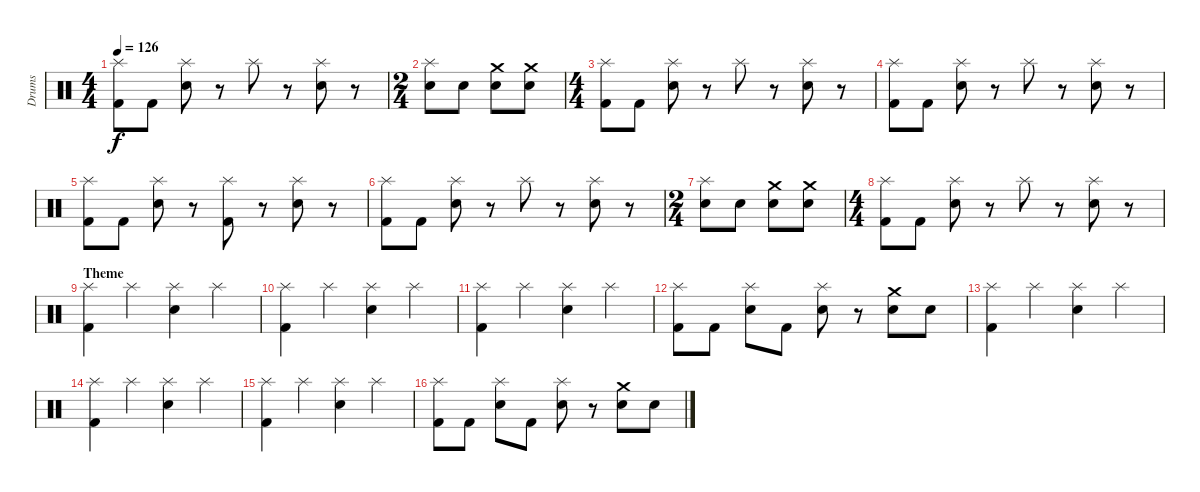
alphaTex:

\track ("Drums" "Drums") {instrument percussion}
\staff {score}
\articulation defaults
\ts (4 4)
\tempo 126
\clef neutral
\ks c
("Splash (hit)" "Kick (hit) 2").8{dy f} "Kick (hit) 2".8 ("Splash (hit)" "Snare (hit) 2").8 r.8 "Splash (hit)".8 r.8 ("Splash (hit)" "Snare (hit) 2").8 r.8 |
\ts (2 4)
("Splash (hit)" "Snare (hit) 2").8 "Snare (hit) 2".8 ("Crash medium (hit)" "Snare (hit) 2").8 ("Crash medium (hit)" "Snare (hit) 2").8 |
\ts (4 4)
("Splash (hit)" "Kick (hit) 2").8 "Kick (hit) 2".8 ("Splash (hit)" "Snare (hit) 2").8 r.8 "Splash (hit)".8 r.8 ("Splash (hit)" "Snare (hit) 2").8 r.8 |
("Splash (hit)" "Kick (hit) 2").8 "Kick (hit) 2".8 ("Splash (hit)" "Snare (hit) 2").8 r.8 "Splash (hit)".8 r.8 ("Splash (hit)" "Snare (hit) 2").8 r.8 |
("Splash (hit)" "Kick (hit) 2").8 "Kick (hit) 2".8 ("Splash (hit)" "Snare (hit) 2").8 r.8 ("Splash (hit)" "Kick (hit) 2").8 r.8 ("Splash (hit)" "Snare (hit) 2").8 r.8 |
("Splash (hit)" "Kick (hit) 2").8 "Kick (hit) 2".8 ("Splash (hit)" "Snare (hit) 2").8 r.8 "Splash (hit)".8 r.8 ("Splash (hit)" "Snare (hit) 2").8 r.8 |
\ts (2 4)
("Splash (hit)" "Snare (hit) 2").8 "Snare (hit) 2".8 ("Crash medium (hit)" "Snare (hit) 2").8 ("Crash medium (hit)" "Snare (hit) 2").8 |
\ts (4 4)
("Splash (hit)" "Kick (hit) 2").8 "Kick (hit) 2".8 ("Splash (hit)" "Snare (hit) 2").8 r.8 "Splash (hit)".8 r.8 ("Splash (hit)" "Snare (hit) 2").8 r.8 |
\section ("" "Theme")
("Splash (hit)" "Kick (hit) 2").4 "Splash (hit)".4 ("Splash (hit)" "Snare (hit) 2").4 "Splash (hit)".4 |
("Splash (hit)" "Kick (hit) 2").4 "Splash (hit)".4 ("Splash (hit)" "Snare (hit) 2").4 "Splash (hit)".4 |
("Splash (hit)" "Kick (hit) 2").4 "Splash (hit)".4 ("Splash (hit)" "Snare (hit) 2").4 "Splash (hit)".4 |
("Splash (hit)" "Kick (hit) 2").8 "Kick (hit) 2".8 ("Splash (hit)" "Snare (hit) 2").8 "Kick (hit) 2".8 ("Splash (hit)" "Snare (hit) 2").8 r.8 ("Crash medium (hit)" "Snare (hit) 2").8 "Snare (hit) 2".8 |
("Splash (hit)" "Kick (hit) 2").4 "Splash (hit)".4 ("Splash (hit)" "Snare (hit) 2").4 "Splash (hit)".4 |
("Splash (hit)" "Kick (hit) 2").4 "Splash (hit)".4 ("Splash (hit)" "Snare (hit) 2").4 "Splash (hit)".4 |
("Splash (hit)" "Kick (hit) 2").4 "Splash (hit)".4 ("Splash (hit)" "Snare (hit) 2").4 "Splash (hit)".4 |
("Splash (hit)" "Kick (hit) 2").8 "Kick (hit) 2".8 ("Splash (hit)" "Snare (hit) 2").8 "Kick (hit) 2".8 ("Splash (hit)" "Snare (hit) 2").8 r.8 ("Crash medium (hit)" "Snare (hit) 2").8 "Snare (hit) 2".8
